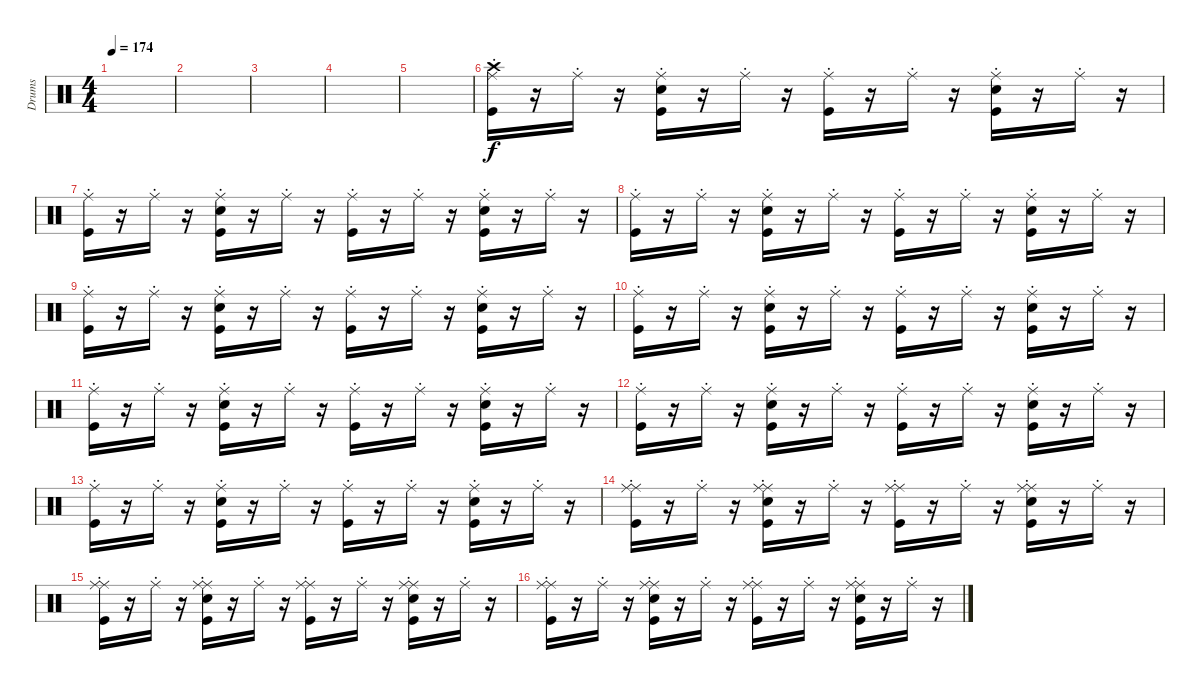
\track ("Drums" "Drums") {instrument percussion}
\staff {score}
\articulation defaults
\ts (4 4)
\tempo 174
\clef neutral
\ks c
|
|
|
|
|
("Crash high (hit)" "Kick (hit)" "Ride (choke)").16 r.16 "Ride (choke)".16 r.16 ("Kick (hit)" "Snare (hit) 2" "Ride (choke)").16 r.16 "Ride (choke)".16 r.16 ("Ride (choke)" "Kick (hit)").16 r.16 "Ride (choke)".16 r.16 ("Kick (hit)" "Snare (hit) 2" "Ride (choke)").16 r.16 "Ride (choke)".16 r.16 |
("Ride (choke)" "Kick (hit)").16 r.16 "Ride (choke)".16 r.16 ("Kick (hit)" "Snare (hit) 2" "Ride (choke)").16 r.16 "Ride (choke)".16 r.16 ("Ride (choke)" "Kick (hit)").16 r.16 "Ride (choke)".16 r.16 ("Kick (hit)" "Snare (hit) 2" "Ride (choke)").16 r.16 "Ride (choke)".16 r.16 |
("Ride (choke)" "Kick (hit)").16 r.16 "Ride (choke)".16 r.16 ("Kick (hit)" "Snare (hit) 2" "Ride (choke)").16 r.16 "Ride (choke)".16 r.16 ("Kick (hit)" "Ride (choke)").16 r.16 "Ride (choke)".16 r.16 ("Kick (hit)" "Snare (hit) 2" "Ride (choke)").16 r.16 "Ride (choke)".16 r.16 |
("Kick (hit)" "Ride (choke)").16 r.16 "Ride (choke)".16 r.16 ("Kick (hit)" "Snare (hit) 2" "Ride (choke)").16 r.16 "Ride (choke)".16 r.16 ("Kick (hit)" "Ride (choke)").16 r.16 "Ride (choke)".16 r.16 ("Kick (hit)" "Snare (hit) 2" "Ride (choke)").16 r.16 "Ride (choke)".16 r.16 |
("Kick (hit)" "Ride (choke)").16 r.16 "Ride (choke)".16 r.16 ("Kick (hit)" "Snare (hit) 2" "Ride (choke)").16 r.16 "Ride (choke)".16 r.16 ("Kick (hit)" "Ride (choke)").16 r.16 "Ride (choke)".16 r.16 ("Kick (hit)" "Snare (hit) 2" "Ride (choke)").16 r.16 "Ride (choke)".16 r.16 |
("Kick (hit)" "Ride (choke)").16 r.16 "Ride (choke)".16 r.16 ("Kick (hit)" "Snare (hit) 2" "Ride (choke)").16 r.16 "Ride (choke)".16 r.16 ("Kick (hit)" "Ride (choke)").16 r.16 "Ride (choke)".16 r.16 ("Kick (hit)" "Snare (hit) 2" "Ride (choke)").16 r.16 "Ride (choke)".16 r.16 |
("Kick (hit)" "Ride (choke)").16 r.16 "Ride (choke)".16 r.16 ("Kick (hit)" "Snare (hit) 2" "Ride (choke)").16 r.16 "Ride (choke)".16 r.16 ("Kick (hit)" "Ride (choke)").16 r.16 "Ride (choke)".16 r.16 ("Kick (hit)" "Snare (hit) 2" "Ride (choke)").16 r.16 "Ride (choke)".16 r.16 |
("Kick (hit)" "Ride (choke)").16 r.16 "Ride (choke)".16 r.16 ("Kick (hit)" "Snare (hit) 2" "Ride (choke)").16 r.16 "Ride (choke)".16 r.16 ("Kick (hit)" "Ride (choke)").16 r.16 "Ride (choke)".16 r.16 ("Kick (hit)" "Snare (hit) 2" "Ride (choke)").16 r.16 "Ride (choke)".16 r.16 |
("Ride (middle)" "Kick (hit)" "Ride (choke)").16 r.16 "Ride (choke)".16 r.16 ("Ride (middle)" "Kick (hit)" "Snare (hit) 2" "Ride (choke)").16 r.16 "Ride (choke)".16 r.16 ("Ride (middle)" "Kick (hit)" "Ride (choke)").16 r.16 "Ride (choke)".16 r.16 ("Ride (middle)" "Kick (hit)" "Snare (hit) 2" "Ride (choke)").16 r.16 "Ride (choke)".16 r.16 |
("Ride (middle)" "Kick (hit)" "Ride (choke)").16 r.16 "Ride (choke)".16 r.16 ("Ride (middle)" "Kick (hit)" "Snare (hit) 2" "Ride (choke)").16 r.16 "Ride (choke)".16 r.16 ("Ride (middle)" "Kick (hit)" "Ride (choke)").16 r.16 "Ride (choke)".16 r.16 ("Kick (hit)" "Snare (hit) 2" "Ride (choke)" "Ride (middle)").16 r.16 "Ride (choke)".16 r.16 |
("Ride (middle)" "Kick (hit)" "Ride (choke)").16 r.16 "Ride (choke)".16 r.16 ("Ride (middle)" "Kick (hit)" "Snare (hit) 2" "Ride (choke)").16 r.16 "Ride (choke)".16 r.16 ("Ride (middle)" "Kick (hit)" "Ride (choke)").16 r.16 "Ride (choke)".16 r.16 ("Ride (middle)" "Kick (hit)" "Snare (hit) 2" "Ride (choke)").16 r.16 "Ride (choke)".16 r.16
